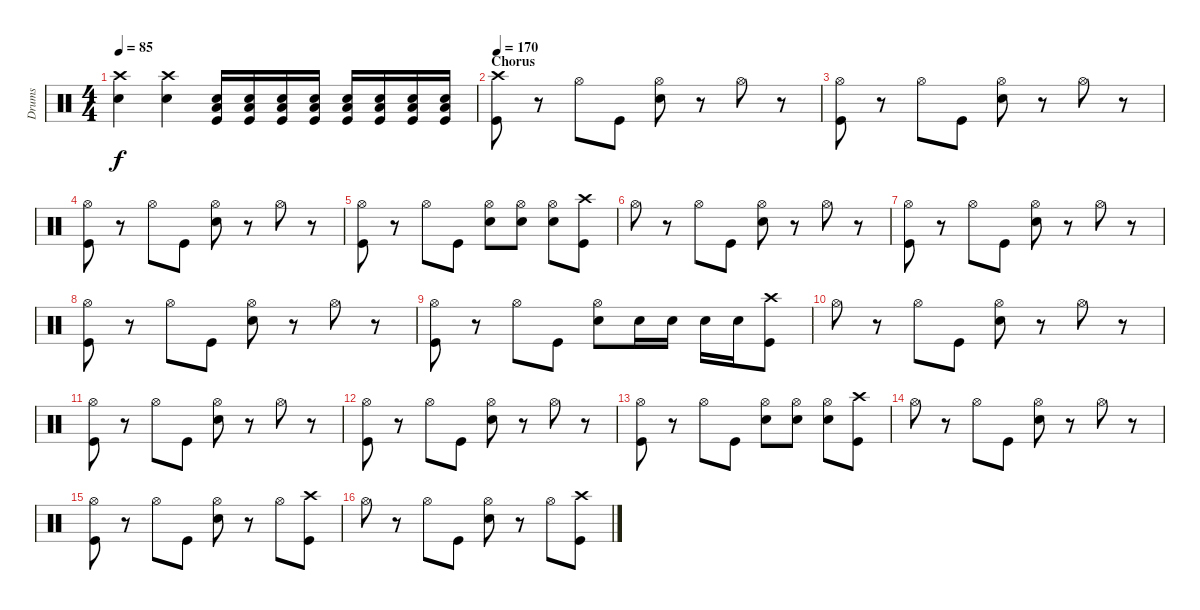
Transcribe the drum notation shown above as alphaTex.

\track ("Drums" "Drums") {instrument percussion}
\staff {score}
\articulation defaults
\ts (4 4)
\tempo 85
\clef neutral
\ks c
("Crash high (hit)" "Snare (hit) 2").4{dy f} ("Crash high (hit)" "Snare (hit) 2").4 ("Snare (hit) 2" "Low Floor Tom (hit)" "Kick (hit)").16{volume 9} ("Snare (hit) 2" "Low Floor Tom (hit)" "Kick (hit)").16{volume 10} ("Snare (hit) 2" "Low Floor Tom (hit)" "Kick (hit)").16{volume 11} ("Snare (hit) 2" "Low Floor Tom (hit)" "Kick (hit)").16{volume 12} ("Snare (hit) 2" "Low Floor Tom (hit)" "Kick (hit)").16{volume 13} ("Snare (hit) 2" "Low Floor Tom (hit)" "Kick (hit)").16{volume 14} ("Snare (hit) 2" "Low Floor Tom (hit)" "Kick (hit)").16{volume 15} ("Snare (hit) 2" "Low Floor Tom (hit)" "Kick (hit)").16{volume 16} |
\section ("" "Chorus")
\tempo 170
("Crash high (hit)" "Kick (hit)").8 r.8 "Hi-Hat (open)".8 "Kick (hit)".8 ("Hi-Hat (open)" "Snare (hit) 2").8 r.8 "Hi-Hat (open)".8 r.8 |
("Hi-Hat (open)" "Kick (hit)").8 r.8 "Hi-Hat (open)".8 "Kick (hit)".8 ("Hi-Hat (open)" "Snare (hit) 2").8 r.8 "Hi-Hat (open)".8 r.8 |
("Hi-Hat (open)" "Kick (hit)").8 r.8 "Hi-Hat (open)".8 "Kick (hit)".8 ("Hi-Hat (open)" "Snare (hit) 2").8 r.8 "Hi-Hat (open)".8 r.8 |
("Hi-Hat (open)" "Kick (hit)").8 r.8 "Hi-Hat (open)".8 "Kick (hit)".8 ("Hi-Hat (open)" "Snare (hit) 2").8 ("Hi-Hat (open)" "Snare (hit) 2").8 ("Hi-Hat (open)" "Snare (hit) 2").8 ("Crash high (hit)" "Kick (hit)").8 |
"Hi-Hat (open)".8 r.8 "Hi-Hat (open)".8 "Kick (hit)".8 ("Hi-Hat (open)" "Snare (hit) 2").8 r.8 "Hi-Hat (open)".8 r.8 |
("Hi-Hat (open)" "Kick (hit)").8 r.8 "Hi-Hat (open)".8 "Kick (hit)".8 ("Hi-Hat (open)" "Snare (hit) 2").8 r.8 "Hi-Hat (open)".8 r.8 |
("Hi-Hat (open)" "Kick (hit)").8 r.8 "Hi-Hat (open)".8 "Kick (hit)".8 ("Hi-Hat (open)" "Snare (hit) 2").8 r.8 "Hi-Hat (open)".8 r.8 |
("Hi-Hat (open)" "Kick (hit)").8 r.8 "Hi-Hat (open)".8 "Kick (hit)".8 ("Hi-Hat (open)" "Snare (hit) 2").8 "Snare (hit) 2".16 "Snare (hit) 2".16 "Snare (hit) 2".16 "Snare (hit) 2".16 ("Crash high (hit)" "Kick (hit)").8 |
"Hi-Hat (open)".8 r.8 "Hi-Hat (open)".8 "Kick (hit)".8 ("Hi-Hat (open)" "Snare (hit) 2").8 r.8 "Hi-Hat (open)".8 r.8 |
("Hi-Hat (open)" "Kick (hit)").8 r.8 "Hi-Hat (open)".8 "Kick (hit)".8 ("Hi-Hat (open)" "Snare (hit) 2").8 r.8 "Hi-Hat (open)".8 r.8 |
("Hi-Hat (open)" "Kick (hit)").8 r.8 "Hi-Hat (open)".8 "Kick (hit)".8 ("Hi-Hat (open)" "Snare (hit) 2").8 r.8 "Hi-Hat (open)".8 r.8 |
("Hi-Hat (open)" "Kick (hit)").8 r.8 "Hi-Hat (open)".8 "Kick (hit)".8 ("Hi-Hat (open)" "Snare (hit) 2").8 ("Hi-Hat (open)" "Snare (hit) 2").8 ("Hi-Hat (open)" "Snare (hit) 2").8 ("Crash high (hit)" "Kick (hit)").8 |
"Hi-Hat (open)".8 r.8 "Hi-Hat (open)".8 "Kick (hit)".8 ("Hi-Hat (open)" "Snare (hit) 2").8 r.8 "Hi-Hat (open)".8 r.8 |
("Hi-Hat (open)" "Kick (hit)").8 r.8 "Hi-Hat (open)".8 "Kick (hit)".8 ("Hi-Hat (open)" "Snare (hit) 2").8 r.8 "Hi-Hat (open)".8 ("Crash high (hit)" "Kick (hit)").8 |
"Hi-Hat (open)".8 r.8 "Hi-Hat (open)".8 "Kick (hit)".8 ("Hi-Hat (open)" "Snare (hit) 2").8 r.8 "Hi-Hat (open)".8 ("Crash high (hit)" "Kick (hit)").8
